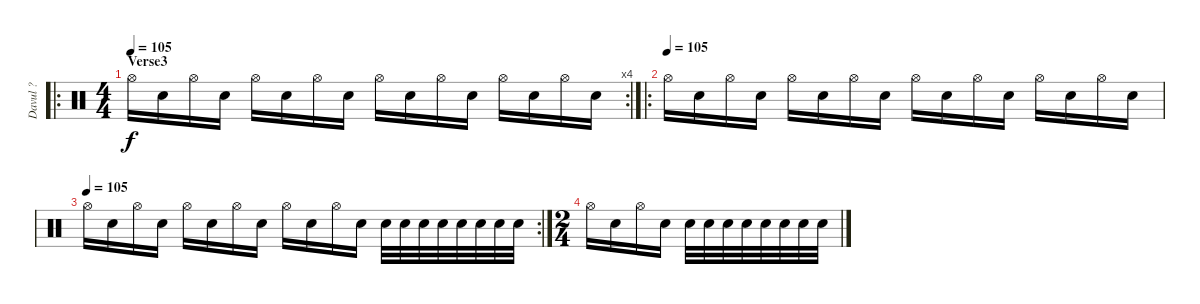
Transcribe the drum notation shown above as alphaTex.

\track ("Davul ?" "Davul ?") {instrument percussion}
\staff {score}
\articulation defaults
\ro
\rc 4
\ts (4 4)
\section ("" "Verse3")
\tempo 105
\clef neutral
\ks c "Hi-Hat (open)".16{dy f} "Snare (hit) 2".16 "Hi-Hat (open)".16 "Snare (hit) 2".16 "Hi-Hat (open)".16 "Snare (hit) 2".16 "Hi-Hat (open)".16 "Snare (hit) 2".16 "Hi-Hat (open)".16 "Snare (hit) 2".16 "Hi-Hat (open)".16 "Snare (hit) 2".16 "Hi-Hat (open)".16 "Snare (hit) 2".16 "Hi-Hat (open)".16 "Snare (hit) 2".16
|
\ro
\tempo (105)
"Hi-Hat (open)".16 "Snare (hit) 2".16 "Hi-Hat (open)".16 "Snare (hit) 2".16 "Hi-Hat (open)".16 "Snare (hit) 2".16 "Hi-Hat (open)".16 "Snare (hit) 2".16 "Hi-Hat (open)".16 "Snare (hit) 2".16 "Hi-Hat (open)".16 "Snare (hit) 2".16 "Hi-Hat (open)".16 "Snare (hit) 2".16 "Hi-Hat (open)".16 "Snare (hit) 2".16 |
\rc 2
\tempo (105)
"Hi-Hat (open)".16 "Snare (hit) 2".16 "Hi-Hat (open)".16 "Snare (hit) 2".16 "Hi-Hat (open)".16 "Snare (hit) 2".16 "Hi-Hat (open)".16 "Snare (hit) 2".16 "Hi-Hat (open)".16 "Snare (hit) 2".16 "Hi-Hat (open)".16 "Snare (hit) 2".16 "Electric Snare (hit)".32 "Electric Snare (hit)".32 "Electric Snare (hit)".32 "Electric Snare (hit)".32 "Electric Snare (hit)".32 "Electric Snare (hit)".32 "Electric Snare (hit)".32 "Electric Snare (hit)".32 |
\ts (2 4)
"Hi-Hat (open)".16 "Snare (hit) 2".16 "Hi-Hat (open)".16 "Snare (hit) 2".16 "Electric Snare (hit)".32 "Electric Snare (hit)".32 "Electric Snare (hit)".32 "Electric Snare (hit)".32 "Electric Snare (hit)".32 "Electric Snare (hit)".32 "Electric Snare (hit)".32 "Electric Snare (hit)".32
